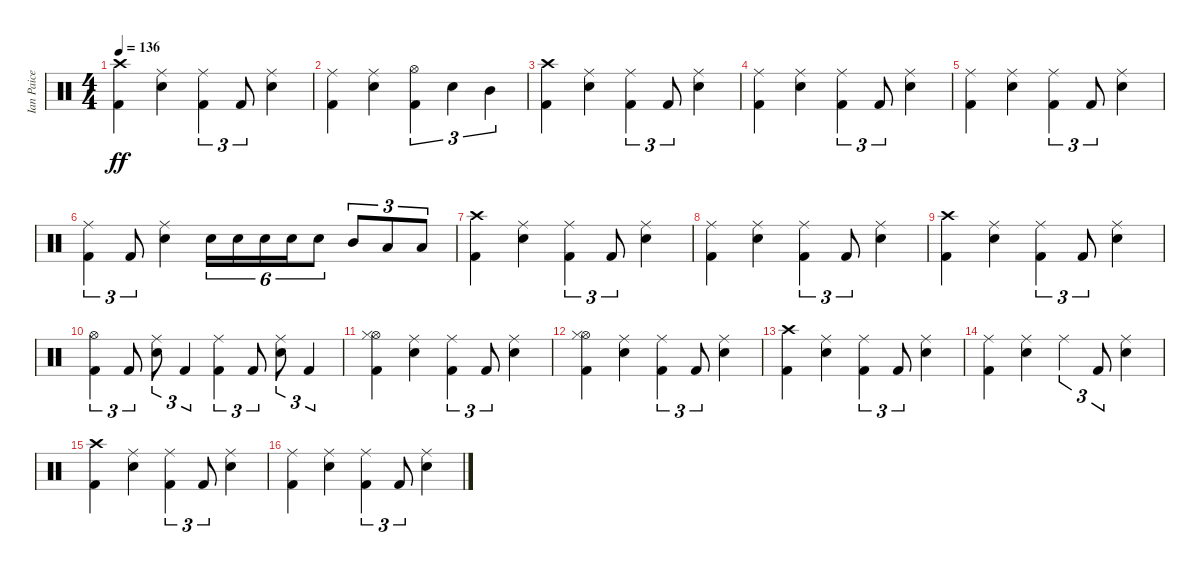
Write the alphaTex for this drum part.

\track ("Ian Paice" "Ian Paice") {instrument percussion}
\staff {score}
\articulation defaults
\ts (4 4)
\tempo 136
\clef neutral
\ks c
("Crash high (hit)" "Kick (hit) 2").4{dy ff} ("Ride (middle)" "Electric Snare (hit)").4 ("Ride (middle)" "Kick (hit) 2").4{tu (3 2)} "Kick (hit) 2".8{tu (3 2)} ("Ride (middle)" "Electric Snare (hit)").4 |
("Ride (middle)" "Kick (hit) 2").4 ("Ride (middle)" "Electric Snare (hit)").4 ("Hi-Hat (open)" "Kick (hit) 2").4{tu (3 2)} "Electric Snare (hit)".4{tu (3 2)} "Mid Tom (hit)".4{tu (3 2)} |
("Crash high (hit)" "Kick (hit) 2").4 ("Ride (middle)" "Electric Snare (hit)").4 ("Ride (middle)" "Kick (hit) 2").4{tu (3 2)} "Kick (hit) 2".8{tu (3 2)} ("Ride (middle)" "Electric Snare (hit)").4 |
("Ride (middle)" "Kick (hit) 2").4 ("Ride (middle)" "Electric Snare (hit)").4 ("Ride (middle)" "Kick (hit) 2").4{tu (3 2)} "Kick (hit) 2".8{tu (3 2)} ("Ride (middle)" "Electric Snare (hit)").4 |
("Ride (middle)" "Kick (hit) 2").4 ("Ride (middle)" "Electric Snare (hit)").4 ("Ride (middle)" "Kick (hit) 2").4{tu (3 2)} "Kick (hit) 2".8{tu (3 2)} ("Ride (middle)" "Electric Snare (hit)").4 |
("Ride (middle)" "Kick (hit) 2").4{tu (3 2)} "Kick (hit) 2".8{tu (3 2)} ("Ride (middle)" "Electric Snare (hit)").4 "Electric Snare (hit)".16{tu (6 4)} "Electric Snare (hit)".16{tu (6 4)} "Electric Snare (hit)".16{tu (6 4)} "Electric Snare (hit)".16{tu (6 4)} "Electric Snare (hit)".8{tu (6 4)} "Mid Tom (hit)".8{tu (3 2)} "Low Tom (hit)".8{tu (3 2)} "Low Tom (hit)".8{tu (3 2)} |
("Crash high (hit)" "Kick (hit) 2").4 ("Ride (middle)" "Electric Snare (hit)").4 ("Ride (middle)" "Kick (hit) 2").4{tu (3 2)} "Kick (hit) 2".8{tu (3 2)} ("Ride (middle)" "Electric Snare (hit)").4 |
("Ride (middle)" "Kick (hit) 2").4 ("Ride (middle)" "Electric Snare (hit)").4 ("Ride (middle)" "Kick (hit) 2").4{tu (3 2)} "Kick (hit) 2".8{tu (3 2)} ("Ride (middle)" "Electric Snare (hit)").4 |
("Crash high (hit)" "Kick (hit) 2").4 ("Ride (middle)" "Electric Snare (hit)").4 ("Ride (middle)" "Kick (hit) 2").4{tu (3 2)} "Kick (hit) 2".8{tu (3 2)} ("Ride (middle)" "Electric Snare (hit)").4 |
("Hi-Hat (open)" "Kick (hit) 2").4{tu (3 2)} "Kick (hit) 2".8{tu (3 2)} ("Ride (middle)" "Electric Snare (hit)").8{tu (3 2)} "Kick (hit) 2".4{tu (3 2)} ("Ride (middle)" "Kick (hit) 2").4{tu (3 2)} "Kick (hit) 2".8{tu (3 2)} ("Ride (middle)" "Electric Snare (hit)").8{tu (3 2)} "Kick (hit) 2".4{tu (3 2)} |
("Hi-Hat (open)" "Hi-Hat (closed)" "Kick (hit) 2").4 ("Ride (middle)" "Electric Snare (hit)").4 ("Ride (middle)" "Kick (hit) 2").4{tu (3 2)} "Kick (hit) 2".8{tu (3 2)} ("Ride (middle)" "Electric Snare (hit)").4 |
("Hi-Hat (open)" "Hi-Hat (closed)" "Kick (hit) 2").4 ("Ride (middle)" "Electric Snare (hit)").4 ("Ride (middle)" "Kick (hit) 2").4{tu (3 2)} "Kick (hit) 2".8{tu (3 2)} ("Ride (middle)" "Electric Snare (hit)").4 |
("Crash high (hit)" "Kick (hit) 2").4 ("Ride (middle)" "Electric Snare (hit)").4 ("Ride (middle)" "Kick (hit) 2").4{tu (3 2)} "Kick (hit) 2".8{tu (3 2)} ("Ride (middle)" "Electric Snare (hit)").4 |
("Ride (middle)" "Kick (hit) 2").4 ("Ride (middle)" "Electric Snare (hit)").4 "Ride (middle)".4{tu (3 2)} "Kick (hit) 2".8{tu (3 2)} ("Ride (middle)" "Electric Snare (hit)").4 |
("Crash high (hit)" "Kick (hit) 2").4 ("Ride (middle)" "Electric Snare (hit)").4 ("Ride (middle)" "Kick (hit) 2").4{tu (3 2)} "Kick (hit) 2".8{tu (3 2)} ("Ride (middle)" "Electric Snare (hit)").4 |
("Ride (middle)" "Kick (hit) 2").4 ("Ride (middle)" "Electric Snare (hit)").4 ("Ride (middle)" "Kick (hit) 2").4{tu (3 2)} "Kick (hit) 2".8{tu (3 2)} ("Ride (middle)" "Electric Snare (hit)").4
